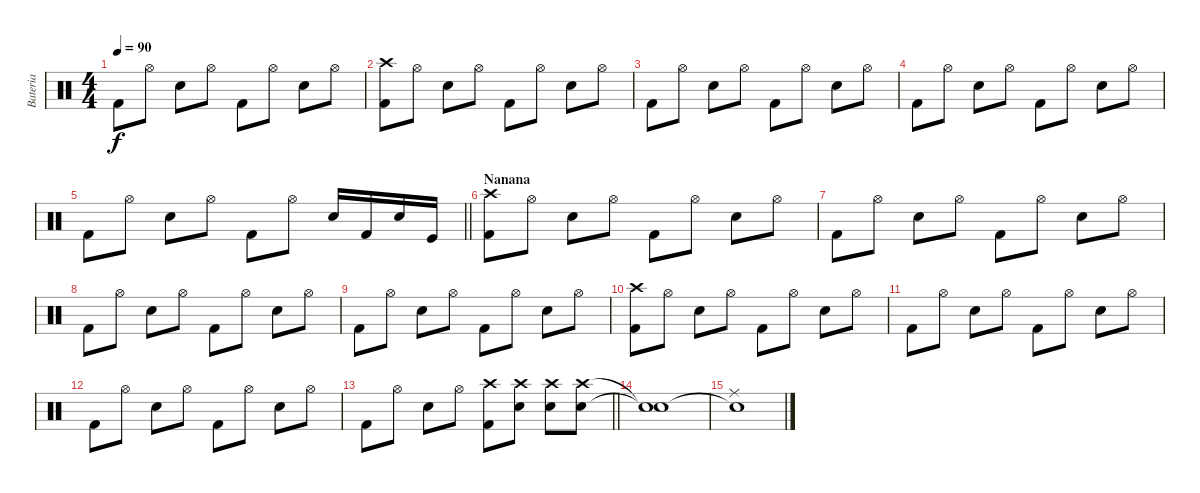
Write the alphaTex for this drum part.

\track ("Bateria" "Bateria") {instrument percussion}
\staff {score}
\articulation defaults
\ts (4 4)
\tempo 90
\clef neutral
\ks c "Kick (hit) 2".8{dy f} "Hi-Hat (open)".8 "Snare (hit) 2".8 "Hi-Hat (open)".8 "Kick (hit) 2".8 "Hi-Hat (open)".8 "Snare (hit) 2".8 "Hi-Hat (open)".8
|
("Kick (hit) 2" "Crash high (hit)").8 "Hi-Hat (open)".8 "Snare (hit) 2".8 "Hi-Hat (open)".8 "Kick (hit) 2".8 "Hi-Hat (open)".8 "Snare (hit) 2".8 "Hi-Hat (open)".8 |
"Kick (hit) 2".8 "Hi-Hat (open)".8 "Snare (hit) 2".8 "Hi-Hat (open)".8 "Kick (hit) 2".8 "Hi-Hat (open)".8 "Snare (hit) 2".8 "Hi-Hat (open)".8 |
"Kick (hit) 2".8 "Hi-Hat (open)".8 "Snare (hit) 2".8 "Hi-Hat (open)".8 "Kick (hit) 2".8 "Hi-Hat (open)".8 "Snare (hit) 2".8 "Hi-Hat (open)".8 |
\barLineRight lightlight "Kick (hit) 2".8 "Hi-Hat (open)".8 "Snare (hit) 2".8 "Hi-Hat (open)".8 "Kick (hit) 2".8 "Hi-Hat (open)".8 "Snare (hit) 2".16 "Kick (hit) 2".16 "Snare (hit) 2".16 "Kick (hit)".16
|
\section ("" "Nanana")
("Kick (hit) 2" "Crash high (hit)").8 "Hi-Hat (open)".8 "Snare (hit) 2".8 "Hi-Hat (open)".8 "Kick (hit) 2".8 "Hi-Hat (open)".8 "Snare (hit) 2".8 "Hi-Hat (open)".8 |
"Kick (hit) 2".8 "Hi-Hat (open)".8 "Snare (hit) 2".8 "Hi-Hat (open)".8 "Kick (hit) 2".8 "Hi-Hat (open)".8 "Snare (hit) 2".8 "Hi-Hat (open)".8 |
"Kick (hit) 2".8 "Hi-Hat (open)".8 "Snare (hit) 2".8 "Hi-Hat (open)".8 "Kick (hit) 2".8 "Hi-Hat (open)".8 "Snare (hit) 2".8 "Hi-Hat (open)".8 |
"Kick (hit) 2".8 "Hi-Hat (open)".8 "Snare (hit) 2".8 "Hi-Hat (open)".8 "Kick (hit) 2".8 "Hi-Hat (open)".8 "Snare (hit) 2".8 "Hi-Hat (open)".8 |
("Kick (hit) 2" "Crash high (hit)").8 "Hi-Hat (open)".8 "Snare (hit) 2".8 "Hi-Hat (open)".8 "Kick (hit) 2".8 "Hi-Hat (open)".8 "Snare (hit) 2".8 "Hi-Hat (open)".8 |
"Kick (hit) 2".8 "Hi-Hat (open)".8 "Snare (hit) 2".8 "Hi-Hat (open)".8 "Kick (hit) 2".8 "Hi-Hat (open)".8 "Snare (hit) 2".8 "Hi-Hat (open)".8 |
"Kick (hit) 2".8 "Hi-Hat (open)".8 "Snare (hit) 2".8 "Hi-Hat (open)".8 "Kick (hit) 2".8 "Hi-Hat (open)".8 "Snare (hit) 2".8 "Hi-Hat (open)".8 |
\barLineRight lightlight "Kick (hit) 2".8 "Hi-Hat (open)".8 "Snare (hit) 2".8 "Hi-Hat (open)".8
("Kick (hit) 2" "Crash high (hit)").8 ("Snare (hit) 2" "Crash high (hit)").8 ("Snare (hit) 2" "Crash high (hit)").8 ("Snare (hit) 2" "Crash high (hit)").8 |
("Snare (hit)"{t} "Snare (hit)"{t}).1 |
("Snare (hit)"{t} "Ride (middle)").1
